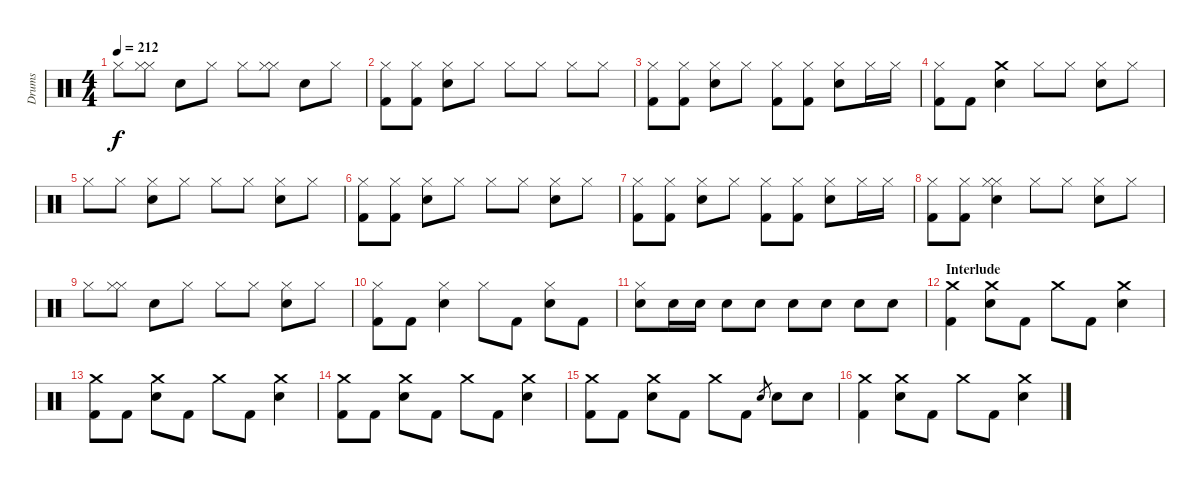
\track ("Drums" "Drums") {instrument percussion}
\staff {score}
\articulation defaults
\ts (4 4)
\tempo 212
\clef neutral
\ks c "Hi-Hat (closed)".8{dy f}
("Hi-Hat (closed)" "Hi-Hat (closed)").8 "Electric Snare (hit)".8 "Hi-Hat (closed)".8 "Hi-Hat (closed)".8 ("Hi-Hat (closed)" "Hi-Hat (closed)").8 "Electric Snare (hit)".8 "Hi-Hat (closed)".8 |
("Hi-Hat (closed)" "Kick (hit) 2").8 ("Hi-Hat (closed)" "Kick (hit) 2").8 ("Hi-Hat (closed)" "Electric Snare (hit)").8 "Hi-Hat (closed)".8 "Hi-Hat (closed)".8 "Hi-Hat (closed)".8 "Hi-Hat (closed)".8 "Hi-Hat (closed)".8 |
("Hi-Hat (closed)" "Kick (hit) 2").8 ("Hi-Hat (closed)" "Kick (hit) 2").8 ("Hi-Hat (closed)" "Electric Snare (hit)").8 "Hi-Hat (closed)".8 ("Hi-Hat (closed)" "Kick (hit) 2").8 ("Hi-Hat (closed)" "Kick (hit) 2").8 ("Hi-Hat (closed)" "Electric Snare (hit)").8 "Hi-Hat (closed)".16 "Hi-Hat (closed)".16 |
("Hi-Hat (closed)" "Kick (hit) 2").8 "Kick (hit) 2".8 ("Crash medium (hit)" "Electric Snare (hit)").4 "Hi-Hat (closed)".8 "Hi-Hat (closed)".8 ("Hi-Hat (closed)" "Electric Snare (hit)").8 "Hi-Hat (closed)".8 |
"Hi-Hat (closed)".8 "Hi-Hat (closed)".8 ("Hi-Hat (closed)" "Electric Snare (hit)").8 "Hi-Hat (closed)".8 "Hi-Hat (closed)".8 "Hi-Hat (closed)".8 ("Hi-Hat (closed)" "Electric Snare (hit)").8 "Hi-Hat (closed)".8 |
("Hi-Hat (closed)" "Kick (hit) 2").8 ("Hi-Hat (closed)" "Kick (hit) 2").8 ("Hi-Hat (closed)" "Electric Snare (hit)").8 "Hi-Hat (closed)".8 "Hi-Hat (closed)".8 "Hi-Hat (closed)".8 ("Hi-Hat (closed)" "Electric Snare (hit)").8 "Hi-Hat (closed)".8 |
("Hi-Hat (closed)" "Kick (hit) 2").8 ("Hi-Hat (closed)" "Kick (hit) 2").8 ("Hi-Hat (closed)" "Electric Snare (hit)").8 "Hi-Hat (closed)".8 ("Hi-Hat (closed)" "Kick (hit) 2").8 ("Hi-Hat (closed)" "Kick (hit) 2").8 ("Hi-Hat (closed)" "Electric Snare (hit)").8 "Hi-Hat (closed)".16 "Hi-Hat (closed)".16 |
("Hi-Hat (closed)" "Kick (hit) 2").8 ("Hi-Hat (closed)" "Kick (hit) 2").8 ("Hi-Hat (closed)" "Hi-Hat (closed)" "Electric Snare (hit)").4 "Hi-Hat (closed)".8 "Hi-Hat (closed)".8 ("Hi-Hat (closed)" "Electric Snare (hit)").8 "Hi-Hat (closed)".8 |
"Hi-Hat (closed)".8 ("Hi-Hat (closed)" "Hi-Hat (closed)").8 "Electric Snare (hit)".8 "Hi-Hat (closed)".8 "Hi-Hat (closed)".8 "Hi-Hat (closed)".8 ("Hi-Hat (closed)" "Electric Snare (hit)").8 "Hi-Hat (closed)".8 |
("Hi-Hat (closed)" "Kick (hit) 2").8 "Kick (hit) 2".8 ("Hi-Hat (closed)" "Electric Snare (hit)").4 "Hi-Hat (closed)".8 "Kick (hit) 2".8 ("Hi-Hat (closed)" "Electric Snare (hit)").8 "Kick (hit) 2".8 |
("Hi-Hat (closed)" "Electric Snare (hit)").8 "Electric Snare (hit)".16 "Electric Snare (hit)".16 "Electric Snare (hit)".8 "Electric Snare (hit)".8 "Electric Snare (hit)".8 "Electric Snare (hit)".8 "Electric Snare (hit)".8 "Electric Snare (hit)".8 |
\section ("" "Interlude")
("Crash medium (hit)" "Kick (hit) 2").4 ("Crash medium (hit)" "Electric Snare (hit)").8 "Kick (hit) 2".8 "Crash medium (hit)".8 "Kick (hit) 2".8 ("Crash medium (hit)" "Electric Snare (hit)").4 |
("Crash medium (hit)" "Kick (hit) 2").8 "Kick (hit) 2".8 ("Crash medium (hit)" "Electric Snare (hit)").8 "Kick (hit) 2".8 "Crash medium (hit)".8 "Kick (hit) 2".8 ("Crash medium (hit)" "Electric Snare (hit)").4 |
("Crash medium (hit)" "Kick (hit) 2").8 "Kick (hit) 2".8 ("Crash medium (hit)" "Electric Snare (hit)").8 "Kick (hit) 2".8 "Crash medium (hit)".8 "Kick (hit) 2".8 ("Crash medium (hit)" "Electric Snare (hit)").4 |
("Crash medium (hit)" "Kick (hit) 2").8 "Kick (hit) 2".8 ("Crash medium (hit)" "Electric Snare (hit)").8 "Kick (hit) 2".8 "Crash medium (hit)".8 "Kick (hit) 2".8 "Electric Snare (hit)".8{gr} "Electric Snare (hit)".8 "Electric Snare (hit)".8 |
("Crash medium (hit)" "Kick (hit) 2").4 ("Crash medium (hit)" "Electric Snare (hit)").8 "Kick (hit) 2".8 "Crash medium (hit)".8 "Kick (hit) 2".8 ("Crash medium (hit)" "Electric Snare (hit)").4
